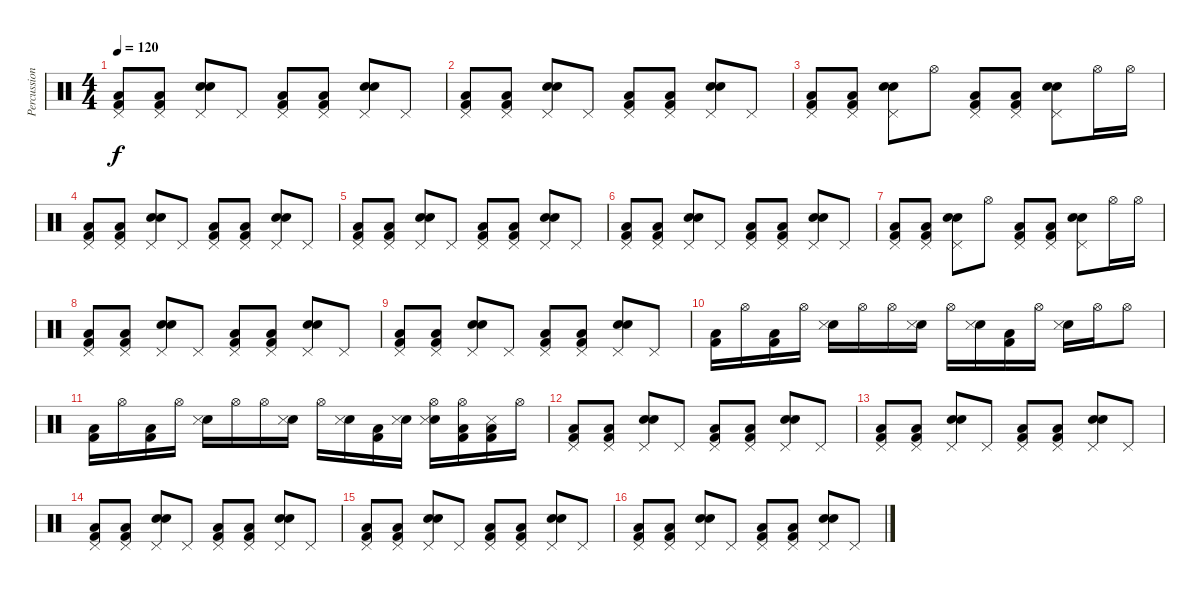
\track ("Percussions" "Percussion") {instrument percussion}
\staff {score}
\articulation defaults
\ts (4 4)
\tempo 120
\clef neutral
\ks c
("Pedal Hi-Hat (hit)" "Kick (hit) 2" "Low Floor Tom (hit)").8{dy f} ("Pedal Hi-Hat (hit)" "Kick (hit) 2" "Low Floor Tom (hit)").8 ("Pedal Hi-Hat (hit)" "Snare (hit) 2" "Electric Snare (hit)").8 "Pedal Hi-Hat (hit)".8 ("Pedal Hi-Hat (hit)" "Kick (hit) 2" "Low Floor Tom (hit)").8 ("Pedal Hi-Hat (hit)" "Kick (hit) 2" "Low Floor Tom (hit)").8 ("Pedal Hi-Hat (hit)" "Snare (hit) 2" "Electric Snare (hit)").8 "Pedal Hi-Hat (hit)".8 |
("Pedal Hi-Hat (hit)" "Kick (hit) 2" "Low Floor Tom (hit)").8 ("Pedal Hi-Hat (hit)" "Kick (hit) 2" "Low Floor Tom (hit)").8 ("Pedal Hi-Hat (hit)" "Snare (hit) 2" "Electric Snare (hit)").8 "Pedal Hi-Hat (hit)".8 ("Pedal Hi-Hat (hit)" "Kick (hit) 2" "Low Floor Tom (hit)").8 ("Pedal Hi-Hat (hit)" "Kick (hit) 2" "Low Floor Tom (hit)").8 ("Pedal Hi-Hat (hit)" "Snare (hit) 2" "Electric Snare (hit)").8 "Pedal Hi-Hat (hit)".8 |
("Pedal Hi-Hat (hit)" "Kick (hit) 2" "Low Floor Tom (hit)").8 ("Pedal Hi-Hat (hit)" "Kick (hit) 2" "Low Floor Tom (hit)").8 ("Pedal Hi-Hat (hit)" "Snare (hit) 2" "Electric Snare (hit)").8 "Hi-Hat (open)".8 ("Pedal Hi-Hat (hit)" "Kick (hit) 2" "Low Floor Tom (hit)").8 ("Pedal Hi-Hat (hit)" "Kick (hit) 2" "Low Floor Tom (hit)").8 ("Pedal Hi-Hat (hit)" "Snare (hit) 2" "Electric Snare (hit)").8 "Hi-Hat (open)".16 "Hi-Hat (open)".16 |
("Pedal Hi-Hat (hit)" "Kick (hit) 2" "Low Floor Tom (hit)").8 ("Pedal Hi-Hat (hit)" "Kick (hit) 2" "Low Floor Tom (hit)").8 ("Pedal Hi-Hat (hit)" "Snare (hit) 2" "Electric Snare (hit)").8 "Pedal Hi-Hat (hit)".8 ("Pedal Hi-Hat (hit)" "Kick (hit) 2" "Low Floor Tom (hit)").8 ("Pedal Hi-Hat (hit)" "Kick (hit) 2" "Low Floor Tom (hit)").8 ("Pedal Hi-Hat (hit)" "Snare (hit) 2" "Electric Snare (hit)").8 "Pedal Hi-Hat (hit)".8 |
("Pedal Hi-Hat (hit)" "Kick (hit) 2" "Low Floor Tom (hit)").8 ("Pedal Hi-Hat (hit)" "Kick (hit) 2" "Low Floor Tom (hit)").8 ("Pedal Hi-Hat (hit)" "Snare (hit) 2" "Electric Snare (hit)").8 "Pedal Hi-Hat (hit)".8 ("Pedal Hi-Hat (hit)" "Kick (hit) 2" "Low Floor Tom (hit)").8 ("Pedal Hi-Hat (hit)" "Kick (hit) 2" "Low Floor Tom (hit)").8 ("Pedal Hi-Hat (hit)" "Snare (hit) 2" "Electric Snare (hit)").8 "Pedal Hi-Hat (hit)".8 |
("Pedal Hi-Hat (hit)" "Kick (hit) 2" "Low Floor Tom (hit)").8 ("Pedal Hi-Hat (hit)" "Kick (hit) 2" "Low Floor Tom (hit)").8 ("Pedal Hi-Hat (hit)" "Snare (hit) 2" "Electric Snare (hit)").8 "Pedal Hi-Hat (hit)".8 ("Pedal Hi-Hat (hit)" "Kick (hit) 2" "Low Floor Tom (hit)").8 ("Pedal Hi-Hat (hit)" "Kick (hit) 2" "Low Floor Tom (hit)").8 ("Pedal Hi-Hat (hit)" "Snare (hit) 2" "Electric Snare (hit)").8 "Pedal Hi-Hat (hit)".8 |
("Pedal Hi-Hat (hit)" "Kick (hit) 2" "Low Floor Tom (hit)").8 ("Pedal Hi-Hat (hit)" "Kick (hit) 2" "Low Floor Tom (hit)").8 ("Pedal Hi-Hat (hit)" "Snare (hit) 2" "Electric Snare (hit)").8 "Hi-Hat (open)".8 ("Pedal Hi-Hat (hit)" "Kick (hit) 2" "Low Floor Tom (hit)").8 ("Pedal Hi-Hat (hit)" "Kick (hit) 2" "Low Floor Tom (hit)").8 ("Pedal Hi-Hat (hit)" "Snare (hit) 2" "Electric Snare (hit)").8 "Hi-Hat (open)".16 "Hi-Hat (open)".16 |
("Pedal Hi-Hat (hit)" "Kick (hit) 2" "Low Floor Tom (hit)").8 ("Pedal Hi-Hat (hit)" "Kick (hit) 2" "Low Floor Tom (hit)").8 ("Pedal Hi-Hat (hit)" "Snare (hit) 2" "Electric Snare (hit)").8 "Pedal Hi-Hat (hit)".8 ("Pedal Hi-Hat (hit)" "Kick (hit) 2" "Low Floor Tom (hit)").8 ("Pedal Hi-Hat (hit)" "Kick (hit) 2" "Low Floor Tom (hit)").8 ("Pedal Hi-Hat (hit)" "Snare (hit) 2" "Electric Snare (hit)").8 "Pedal Hi-Hat (hit)".8 |
("Pedal Hi-Hat (hit)" "Kick (hit) 2" "Low Floor Tom (hit)").8 ("Pedal Hi-Hat (hit)" "Kick (hit) 2" "Low Floor Tom (hit)").8 ("Pedal Hi-Hat (hit)" "Snare (hit) 2" "Electric Snare (hit)").8 "Pedal Hi-Hat (hit)".8 ("Pedal Hi-Hat (hit)" "Kick (hit) 2" "Low Floor Tom (hit)").8 ("Pedal Hi-Hat (hit)" "Kick (hit) 2" "Low Floor Tom (hit)").8 ("Pedal Hi-Hat (hit)" "Snare (hit) 2" "Electric Snare (hit)").8 "Pedal Hi-Hat (hit)".8 |
("Kick (hit) 2" "Low Floor Tom (hit)").16 "Hi-Hat (open)".16 ("Kick (hit) 2" "Low Floor Tom (hit)").16 "Hi-Hat (open)".16 ("Snare (hit) 2" "Snare (side stick) 3").16 "Hi-Hat (open)".16 "Hi-Hat (open)".16 ("Snare (hit) 2" "Snare (side stick) 3").16 "Hi-Hat (open)".16 ("Snare (hit) 2" "Snare (side stick) 3").16 ("Kick (hit) 2" "Low Floor Tom (hit)").16 "Hi-Hat (open)".16 ("Snare (hit) 2" "Snare (side stick) 3").16 "Hi-Hat (open)".16 "Hi-Hat (open)".8 |
("Kick (hit) 2" "Low Floor Tom (hit)").16 "Hi-Hat (open)".16 ("Kick (hit) 2" "Low Floor Tom (hit)").16 "Hi-Hat (open)".16 ("Snare (hit) 2" "Snare (side stick) 3").16 "Hi-Hat (open)".16 "Hi-Hat (open)".16 ("Snare (hit) 2" "Snare (side stick) 3").16 "Hi-Hat (open)".16 ("Snare (hit) 2" "Snare (side stick) 3").16 ("Kick (hit) 2" "Low Floor Tom (hit)").16 ("Snare (hit) 2" "Snare (side stick) 3").16 ("Hi-Hat (open)" "Snare (hit) 2" "Snare (side stick) 3").16 ("Hi-Hat (open)" "Kick (hit) 2" "Low Floor Tom (hit)").16 ("Kick (hit) 2" "Low Floor Tom (hit)" "Snare (side stick) 3").16 "Hi-Hat (open)".16 |
("Pedal Hi-Hat (hit)" "Kick (hit) 2" "Low Floor Tom (hit)").8 ("Pedal Hi-Hat (hit)" "Kick (hit) 2" "Low Floor Tom (hit)").8 ("Pedal Hi-Hat (hit)" "Snare (hit) 2" "Electric Snare (hit)").8 "Pedal Hi-Hat (hit)".8 ("Pedal Hi-Hat (hit)" "Kick (hit) 2" "Low Floor Tom (hit)").8 ("Pedal Hi-Hat (hit)" "Kick (hit) 2" "Low Floor Tom (hit)").8 ("Pedal Hi-Hat (hit)" "Snare (hit) 2" "Electric Snare (hit)").8 "Pedal Hi-Hat (hit)".8 |
("Pedal Hi-Hat (hit)" "Kick (hit) 2" "Low Floor Tom (hit)").8 ("Pedal Hi-Hat (hit)" "Kick (hit) 2" "Low Floor Tom (hit)").8 ("Pedal Hi-Hat (hit)" "Snare (hit) 2" "Electric Snare (hit)").8 "Pedal Hi-Hat (hit)".8 ("Pedal Hi-Hat (hit)" "Kick (hit) 2" "Low Floor Tom (hit)").8 ("Pedal Hi-Hat (hit)" "Kick (hit) 2" "Low Floor Tom (hit)").8 ("Pedal Hi-Hat (hit)" "Snare (hit) 2" "Electric Snare (hit)").8 "Pedal Hi-Hat (hit)".8 |
("Pedal Hi-Hat (hit)" "Kick (hit) 2" "Low Floor Tom (hit)").8 ("Pedal Hi-Hat (hit)" "Kick (hit) 2" "Low Floor Tom (hit)").8 ("Pedal Hi-Hat (hit)" "Snare (hit) 2" "Electric Snare (hit)").8 "Pedal Hi-Hat (hit)".8 ("Pedal Hi-Hat (hit)" "Kick (hit) 2" "Low Floor Tom (hit)").8 ("Pedal Hi-Hat (hit)" "Kick (hit) 2" "Low Floor Tom (hit)").8 ("Pedal Hi-Hat (hit)" "Snare (hit) 2" "Electric Snare (hit)").8 "Pedal Hi-Hat (hit)".8 |
("Pedal Hi-Hat (hit)" "Kick (hit) 2" "Low Floor Tom (hit)").8 ("Pedal Hi-Hat (hit)" "Kick (hit) 2" "Low Floor Tom (hit)").8 ("Pedal Hi-Hat (hit)" "Snare (hit) 2" "Electric Snare (hit)").8 "Pedal Hi-Hat (hit)".8 ("Pedal Hi-Hat (hit)" "Kick (hit) 2" "Low Floor Tom (hit)").8 ("Pedal Hi-Hat (hit)" "Kick (hit) 2" "Low Floor Tom (hit)").8 ("Pedal Hi-Hat (hit)" "Snare (hit) 2" "Electric Snare (hit)").8 "Pedal Hi-Hat (hit)".8 |
("Pedal Hi-Hat (hit)" "Kick (hit) 2" "Low Floor Tom (hit)").8 ("Pedal Hi-Hat (hit)" "Kick (hit) 2" "Low Floor Tom (hit)").8 ("Pedal Hi-Hat (hit)" "Snare (hit) 2" "Electric Snare (hit)").8 "Pedal Hi-Hat (hit)".8 ("Pedal Hi-Hat (hit)" "Kick (hit) 2" "Low Floor Tom (hit)").8 ("Pedal Hi-Hat (hit)" "Kick (hit) 2" "Low Floor Tom (hit)").8 ("Pedal Hi-Hat (hit)" "Snare (hit) 2" "Electric Snare (hit)").8 "Pedal Hi-Hat (hit)".8
